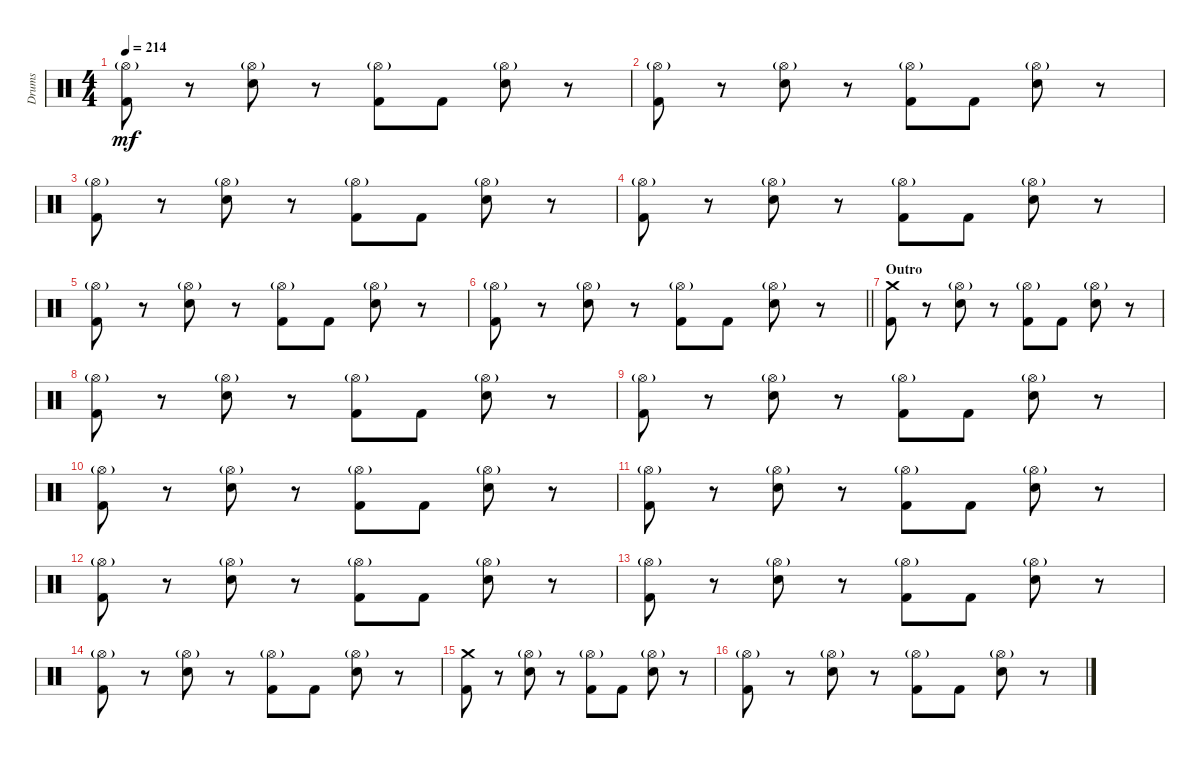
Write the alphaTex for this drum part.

\track ("Drums" "Drums") {instrument percussion}
\staff {score}
\articulation defaults
\ts (4 4)
\tempo 214
\clef neutral
\ks c
("Hi-Hat (open)"{g} "Kick (hit) 2").8{dy mf} r.8 ("Hi-Hat (open)"{g} "Snare (hit) 2").8 r.8 ("Hi-Hat (open)"{g} "Kick (hit) 2").8 "Kick (hit) 2".8 ("Hi-Hat (open)"{g} "Snare (hit) 2").8 r.8 |
("Hi-Hat (open)"{g} "Kick (hit) 2").8 r.8 ("Hi-Hat (open)"{g} "Snare (hit) 2").8 r.8 ("Hi-Hat (open)"{g} "Kick (hit) 2").8 "Kick (hit) 2".8 ("Hi-Hat (open)"{g} "Snare (hit) 2").8 r.8 |
("Hi-Hat (open)"{g} "Kick (hit) 2").8 r.8 ("Hi-Hat (open)"{g} "Snare (hit) 2").8 r.8 ("Hi-Hat (open)"{g} "Kick (hit) 2").8 "Kick (hit) 2".8 ("Hi-Hat (open)"{g} "Snare (hit) 2").8 r.8 |
("Hi-Hat (open)"{g} "Kick (hit) 2").8 r.8 ("Hi-Hat (open)"{g} "Snare (hit) 2").8 r.8 ("Hi-Hat (open)"{g} "Kick (hit) 2").8 "Kick (hit) 2".8 ("Hi-Hat (open)"{g} "Snare (hit) 2").8 r.8 |
("Hi-Hat (open)"{g} "Kick (hit) 2").8 r.8 ("Hi-Hat (open)"{g} "Snare (hit) 2").8 r.8 ("Hi-Hat (open)"{g} "Kick (hit) 2").8 "Kick (hit) 2".8 ("Hi-Hat (open)"{g} "Snare (hit) 2").8 r.8 |
\barLineRight lightlight
("Hi-Hat (open)"{g} "Kick (hit) 2").8 r.8 ("Hi-Hat (open)"{g} "Snare (hit) 2").8 r.8 ("Hi-Hat (open)"{g} "Kick (hit) 2").8 "Kick (hit) 2".8 ("Hi-Hat (open)"{g} "Snare (hit) 2").8 r.8 |
\section ("" "Outro")
("Crash medium (hit)" "Kick (hit) 2").8 r.8 ("Hi-Hat (open)"{g} "Snare (hit) 2").8 r.8 ("Hi-Hat (open)"{g} "Kick (hit) 2").8 "Kick (hit) 2".8 ("Hi-Hat (open)"{g} "Snare (hit) 2").8 r.8 |
("Hi-Hat (open)"{g} "Kick (hit) 2").8 r.8 ("Hi-Hat (open)"{g} "Snare (hit) 2").8 r.8 ("Hi-Hat (open)"{g} "Kick (hit) 2").8 "Kick (hit) 2".8 ("Hi-Hat (open)"{g} "Snare (hit) 2").8 r.8 |
("Hi-Hat (open)"{g} "Kick (hit) 2").8 r.8 ("Hi-Hat (open)"{g} "Snare (hit) 2").8 r.8 ("Hi-Hat (open)"{g} "Kick (hit) 2").8 "Kick (hit) 2".8 ("Hi-Hat (open)"{g} "Snare (hit) 2").8 r.8 |
("Hi-Hat (open)"{g} "Kick (hit) 2").8 r.8 ("Hi-Hat (open)"{g} "Snare (hit) 2").8 r.8 ("Hi-Hat (open)"{g} "Kick (hit) 2").8 "Kick (hit) 2".8 ("Hi-Hat (open)"{g} "Snare (hit) 2").8 r.8 |
("Hi-Hat (open)"{g} "Kick (hit) 2").8 r.8 ("Hi-Hat (open)"{g} "Snare (hit) 2").8 r.8 ("Hi-Hat (open)"{g} "Kick (hit) 2").8 "Kick (hit) 2".8 ("Hi-Hat (open)"{g} "Snare (hit) 2").8 r.8 |
("Hi-Hat (open)"{g} "Kick (hit) 2").8 r.8 ("Hi-Hat (open)"{g} "Snare (hit) 2").8 r.8 ("Hi-Hat (open)"{g} "Kick (hit) 2").8 "Kick (hit) 2".8 ("Hi-Hat (open)"{g} "Snare (hit) 2").8 r.8 |
("Hi-Hat (open)"{g} "Kick (hit) 2").8 r.8 ("Hi-Hat (open)"{g} "Snare (hit) 2").8 r.8 ("Hi-Hat (open)"{g} "Kick (hit) 2").8 "Kick (hit) 2".8 ("Hi-Hat (open)"{g} "Snare (hit) 2").8 r.8 |
("Hi-Hat (open)"{g} "Kick (hit) 2").8 r.8 ("Hi-Hat (open)"{g} "Snare (hit) 2").8 r.8 ("Hi-Hat (open)"{g} "Kick (hit) 2").8 "Kick (hit) 2".8 ("Hi-Hat (open)"{g} "Snare (hit) 2").8 r.8 |
("Crash medium (hit)" "Kick (hit) 2").8 r.8 ("Hi-Hat (open)"{g} "Snare (hit) 2").8 r.8 ("Hi-Hat (open)"{g} "Kick (hit) 2").8 "Kick (hit) 2".8 ("Hi-Hat (open)"{g} "Snare (hit) 2").8 r.8 |
("Hi-Hat (open)"{g} "Kick (hit) 2").8 r.8 ("Hi-Hat (open)"{g} "Snare (hit) 2").8 r.8 ("Hi-Hat (open)"{g} "Kick (hit) 2").8 "Kick (hit) 2".8 ("Hi-Hat (open)"{g} "Snare (hit) 2").8 r.8
